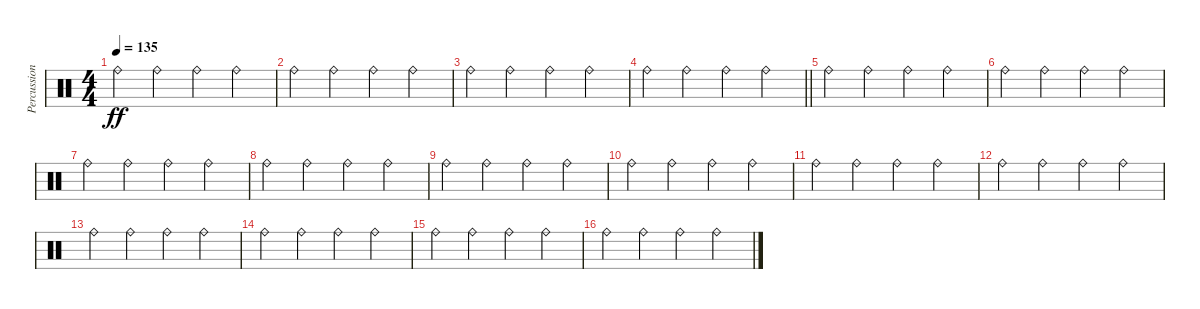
\track ("Percussion" "Percussion") {instrument percussion}
\staff {score}
\articulation defaults
\ts (4 4)
\tempo 135
\clef neutral
\ks c "Ride (bell)".4{dy ff} "Ride (bell)".4 "Ride (bell)".4 "Ride (bell)".4
|
"Ride (bell)".4 "Ride (bell)".4 "Ride (bell)".4 "Ride (bell)".4 |
"Ride (bell)".4 "Ride (bell)".4 "Ride (bell)".4 "Ride (bell)".4 |
\barLineRight lightlight "Ride (bell)".4 "Ride (bell)".4 "Ride (bell)".4 "Ride (bell)".4
|
"Ride (bell)".4 "Ride (bell)".4 "Ride (bell)".4 "Ride (bell)".4 |
"Ride (bell)".4 "Ride (bell)".4 "Ride (bell)".4 "Ride (bell)".4 |
"Ride (bell)".4 "Ride (bell)".4 "Ride (bell)".4 "Ride (bell)".4 |
"Ride (bell)".4 "Ride (bell)".4 "Ride (bell)".4 "Ride (bell)".4 |
"Ride (bell)".4 "Ride (bell)".4 "Ride (bell)".4 "Ride (bell)".4 |
"Ride (bell)".4 "Ride (bell)".4 "Ride (bell)".4 "Ride (bell)".4 |
"Ride (bell)".4 "Ride (bell)".4 "Ride (bell)".4 "Ride (bell)".4 |
"Ride (bell)".4 "Ride (bell)".4 "Ride (bell)".4 "Ride (bell)".4 |
"Ride (bell)".4 "Ride (bell)".4 "Ride (bell)".4 "Ride (bell)".4 |
"Ride (bell)".4 "Ride (bell)".4 "Ride (bell)".4 "Ride (bell)".4 |
"Ride (bell)".4 "Ride (bell)".4 "Ride (bell)".4 "Ride (bell)".4 |
"Ride (bell)".4 "Ride (bell)".4 "Ride (bell)".4 "Ride (bell)".4
